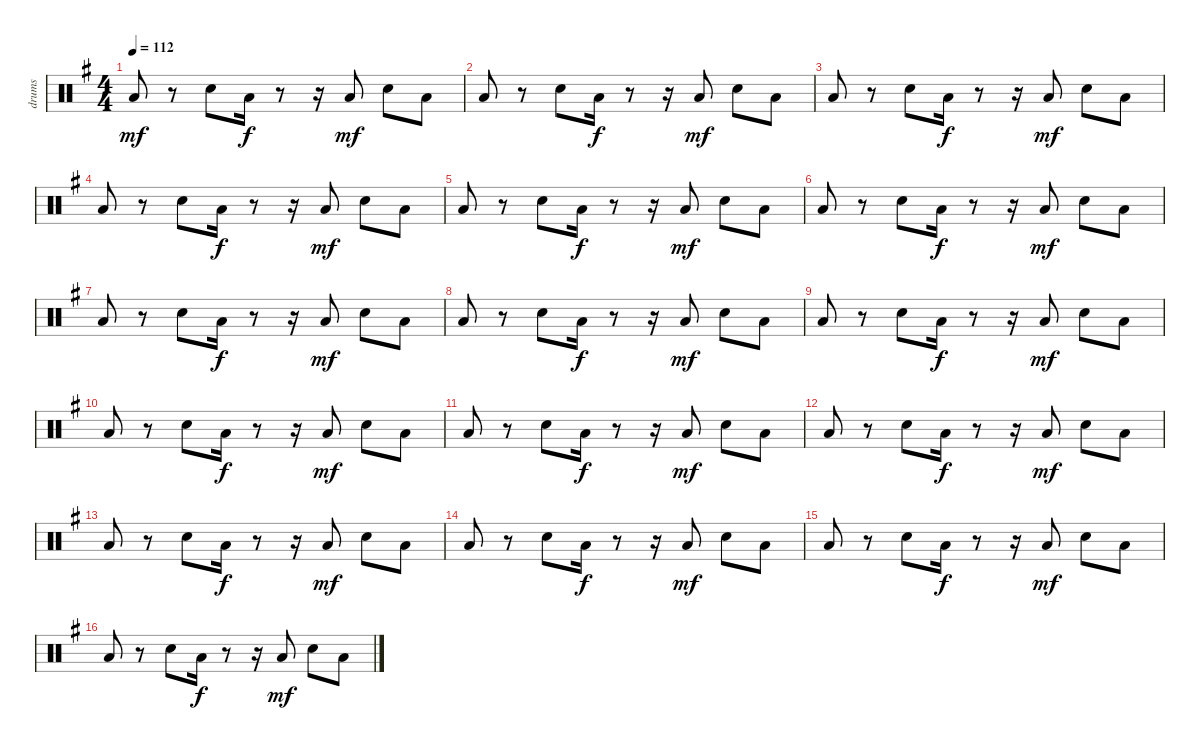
\track ("drums" "drums") {instrument percussion}
\staff {score}
\articulation defaults
\ts (4 4)
\tempo 112
\clef neutral
\ks g "Low Floor Tom (hit)".8{dy mf}
r.8 "Snare (hit) 2".8 "Low Floor Tom (hit)".16{dy f} r.8 r.16 "Low Floor Tom (hit)".8{dy mf} "Snare (hit) 2".8 "Low Floor Tom (hit)".8 |
"Low Floor Tom (hit)".8 r.8 "Snare (hit) 2".8 "Low Floor Tom (hit)".16{dy f} r.8 r.16 "Low Floor Tom (hit)".8{dy mf} "Snare (hit) 2".8 "Low Floor Tom (hit)".8 |
"Low Floor Tom (hit)".8 r.8 "Snare (hit) 2".8 "Low Floor Tom (hit)".16{dy f} r.8 r.16 "Low Floor Tom (hit)".8{dy mf} "Snare (hit) 2".8 "Low Floor Tom (hit)".8 |
"Low Floor Tom (hit)".8 r.8 "Snare (hit) 2".8 "Low Floor Tom (hit)".16{dy f} r.8 r.16 "Low Floor Tom (hit)".8{dy mf} "Snare (hit) 2".8 "Low Floor Tom (hit)".8 |
"Low Floor Tom (hit)".8 r.8 "Snare (hit) 2".8 "Low Floor Tom (hit)".16{dy f} r.8 r.16 "Low Floor Tom (hit)".8{dy mf} "Snare (hit) 2".8 "Low Floor Tom (hit)".8 |
"Low Floor Tom (hit)".8 r.8 "Snare (hit) 2".8 "Low Floor Tom (hit)".16{dy f} r.8 r.16 "Low Floor Tom (hit)".8{dy mf} "Snare (hit) 2".8 "Low Floor Tom (hit)".8 |
"Low Floor Tom (hit)".8 r.8 "Snare (hit) 2".8 "Low Floor Tom (hit)".16{dy f} r.8 r.16 "Low Floor Tom (hit)".8{dy mf} "Snare (hit) 2".8 "Low Floor Tom (hit)".8 |
"Low Floor Tom (hit)".8 r.8 "Snare (hit) 2".8 "Low Floor Tom (hit)".16{dy f} r.8 r.16 "Low Floor Tom (hit)".8{dy mf} "Snare (hit) 2".8 "Low Floor Tom (hit)".8 |
"Low Floor Tom (hit)".8 r.8 "Snare (hit) 2".8 "Low Floor Tom (hit)".16{dy f} r.8 r.16 "Low Floor Tom (hit)".8{dy mf} "Snare (hit) 2".8 "Low Floor Tom (hit)".8 |
"Low Floor Tom (hit)".8 r.8 "Snare (hit) 2".8 "Low Floor Tom (hit)".16{dy f} r.8 r.16 "Low Floor Tom (hit)".8{dy mf} "Snare (hit) 2".8 "Low Floor Tom (hit)".8 |
"Low Floor Tom (hit)".8 r.8 "Snare (hit) 2".8 "Low Floor Tom (hit)".16{dy f} r.8 r.16 "Low Floor Tom (hit)".8{dy mf} "Snare (hit) 2".8 "Low Floor Tom (hit)".8 |
"Low Floor Tom (hit)".8 r.8 "Snare (hit) 2".8 "Low Floor Tom (hit)".16{dy f} r.8 r.16 "Low Floor Tom (hit)".8{dy mf} "Snare (hit) 2".8 "Low Floor Tom (hit)".8 |
"Low Floor Tom (hit)".8 r.8 "Snare (hit) 2".8 "Low Floor Tom (hit)".16{dy f} r.8 r.16 "Low Floor Tom (hit)".8{dy mf} "Snare (hit) 2".8 "Low Floor Tom (hit)".8 |
"Low Floor Tom (hit)".8 r.8 "Snare (hit) 2".8 "Low Floor Tom (hit)".16{dy f} r.8 r.16 "Low Floor Tom (hit)".8{dy mf} "Snare (hit) 2".8 "Low Floor Tom (hit)".8 |
"Low Floor Tom (hit)".8 r.8 "Snare (hit) 2".8 "Low Floor Tom (hit)".16{dy f} r.8 r.16 "Low Floor Tom (hit)".8{dy mf} "Snare (hit) 2".8 "Low Floor Tom (hit)".8 |
"Low Floor Tom (hit)".8 r.8 "Snare (hit) 2".8 "Low Floor Tom (hit)".16{dy f} r.8 r.16 "Low Floor Tom (hit)".8{dy mf} "Snare (hit) 2".8 "Low Floor Tom (hit)".8
